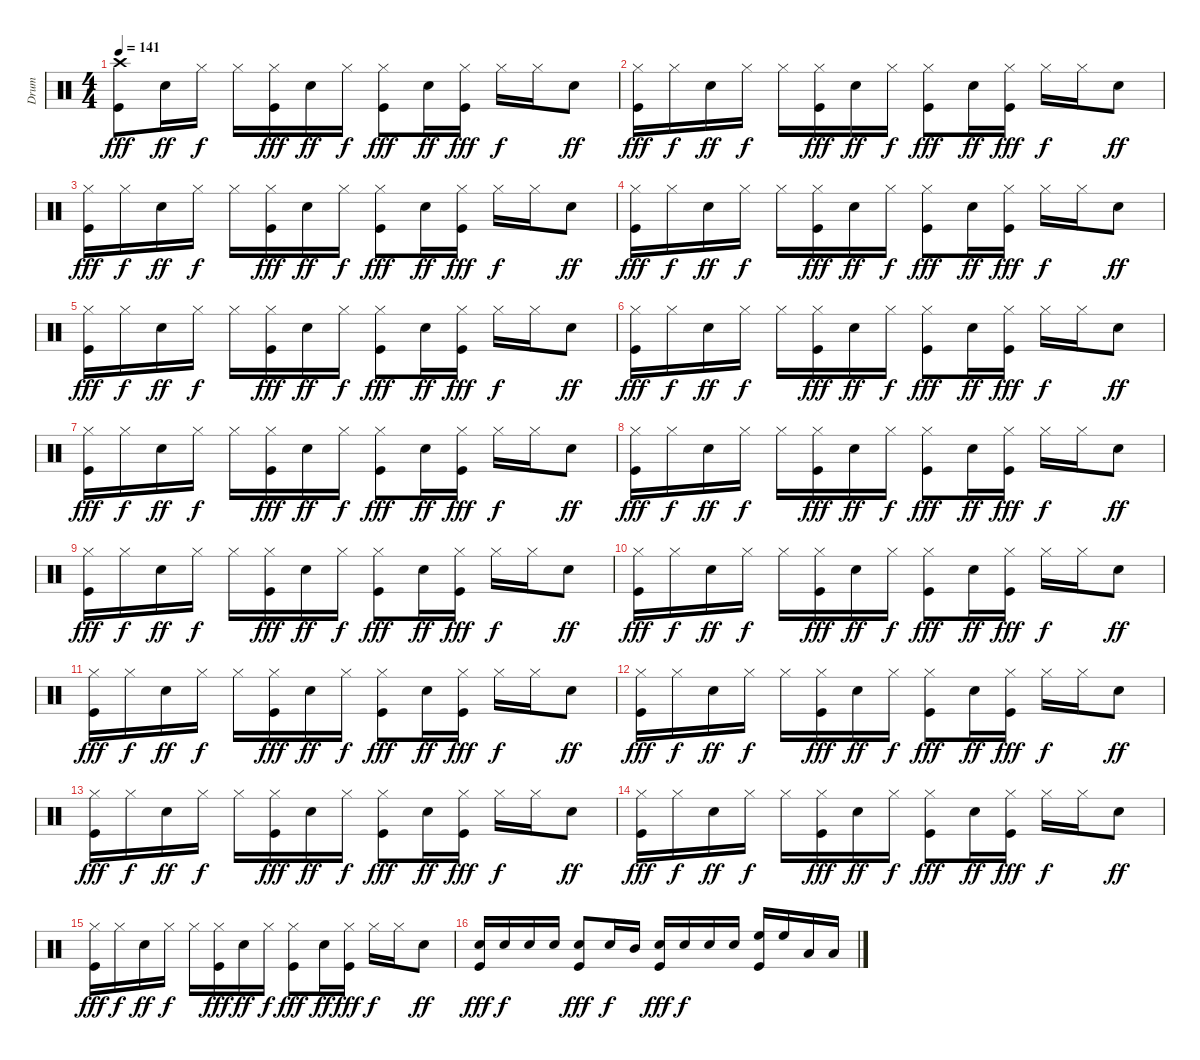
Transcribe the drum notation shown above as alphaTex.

\track ("Drum" "Drum") {instrument percussion}
\staff {score}
\articulation defaults
\ts (4 4)
\tempo 141
\clef neutral
\ks c
("Crash high (hit)" "Kick (hit)").8{dy fff} "Electric Snare (hit)".16{dy ff} "Hi-Hat (closed)".16{dy f} "Hi-Hat (closed)".16 ("Hi-Hat (closed)" "Kick (hit)").16{dy fff} "Electric Snare (hit)".16{dy ff} "Hi-Hat (closed)".16{dy f} ("Hi-Hat (closed)" "Kick (hit)").8{dy fff} "Electric Snare (hit)".16{dy ff} ("Hi-Hat (closed)" "Kick (hit)").16{dy fff} "Hi-Hat (closed)".16{dy f} "Hi-Hat (closed)".16 "Electric Snare (hit)".8{dy ff} |
("Hi-Hat (closed)" "Kick (hit)").16{dy fff} "Hi-Hat (closed)".16{dy f} "Electric Snare (hit)".16{dy ff} "Hi-Hat (closed)".16{dy f} "Hi-Hat (closed)".16 ("Hi-Hat (closed)" "Kick (hit)").16{dy fff} "Electric Snare (hit)".16{dy ff} "Hi-Hat (closed)".16{dy f} ("Hi-Hat (closed)" "Kick (hit)").8{dy fff} "Electric Snare (hit)".16{dy ff} ("Hi-Hat (closed)" "Kick (hit)").16{dy fff} "Hi-Hat (closed)".16{dy f} "Hi-Hat (closed)".16 "Electric Snare (hit)".8{dy ff} |
("Hi-Hat (closed)" "Kick (hit)").16{dy fff} "Hi-Hat (closed)".16{dy f} "Electric Snare (hit)".16{dy ff} "Hi-Hat (closed)".16{dy f} "Hi-Hat (closed)".16 ("Hi-Hat (closed)" "Kick (hit)").16{dy fff} "Electric Snare (hit)".16{dy ff} "Hi-Hat (closed)".16{dy f} ("Hi-Hat (closed)" "Kick (hit)").8{dy fff} "Electric Snare (hit)".16{dy ff} ("Hi-Hat (closed)" "Kick (hit)").16{dy fff} "Hi-Hat (closed)".16{dy f} "Hi-Hat (closed)".16 "Electric Snare (hit)".8{dy ff} |
("Hi-Hat (closed)" "Kick (hit)").16{dy fff} "Hi-Hat (closed)".16{dy f} "Electric Snare (hit)".16{dy ff} "Hi-Hat (closed)".16{dy f} "Hi-Hat (closed)".16 ("Hi-Hat (closed)" "Kick (hit)").16{dy fff} "Electric Snare (hit)".16{dy ff} "Hi-Hat (closed)".16{dy f} ("Hi-Hat (closed)" "Kick (hit)").8{dy fff} "Electric Snare (hit)".16{dy ff} ("Hi-Hat (closed)" "Kick (hit)").16{dy fff} "Hi-Hat (closed)".16{dy f} "Hi-Hat (closed)".16 "Electric Snare (hit)".8{dy ff} |
("Hi-Hat (closed)" "Kick (hit)").16{dy fff} "Hi-Hat (closed)".16{dy f} "Electric Snare (hit)".16{dy ff} "Hi-Hat (closed)".16{dy f} "Hi-Hat (closed)".16 ("Hi-Hat (closed)" "Kick (hit)").16{dy fff} "Electric Snare (hit)".16{dy ff} "Hi-Hat (closed)".16{dy f} ("Hi-Hat (closed)" "Kick (hit)").8{dy fff} "Electric Snare (hit)".16{dy ff} ("Hi-Hat (closed)" "Kick (hit)").16{dy fff} "Hi-Hat (closed)".16{dy f} "Hi-Hat (closed)".16 "Electric Snare (hit)".8{dy ff} |
("Hi-Hat (closed)" "Kick (hit)").16{dy fff} "Hi-Hat (closed)".16{dy f} "Electric Snare (hit)".16{dy ff} "Hi-Hat (closed)".16{dy f} "Hi-Hat (closed)".16 ("Hi-Hat (closed)" "Kick (hit)").16{dy fff} "Electric Snare (hit)".16{dy ff} "Hi-Hat (closed)".16{dy f} ("Hi-Hat (closed)" "Kick (hit)").8{dy fff} "Electric Snare (hit)".16{dy ff} ("Hi-Hat (closed)" "Kick (hit)").16{dy fff} "Hi-Hat (closed)".16{dy f} "Hi-Hat (closed)".16 "Electric Snare (hit)".8{dy ff} |
("Hi-Hat (closed)" "Kick (hit)").16{dy fff} "Hi-Hat (closed)".16{dy f} "Electric Snare (hit)".16{dy ff} "Hi-Hat (closed)".16{dy f} "Hi-Hat (closed)".16 ("Hi-Hat (closed)" "Kick (hit)").16{dy fff} "Electric Snare (hit)".16{dy ff} "Hi-Hat (closed)".16{dy f} ("Hi-Hat (closed)" "Kick (hit)").8{dy fff} "Electric Snare (hit)".16{dy ff} ("Hi-Hat (closed)" "Kick (hit)").16{dy fff} "Hi-Hat (closed)".16{dy f} "Hi-Hat (closed)".16 "Electric Snare (hit)".8{dy ff} |
("Hi-Hat (closed)" "Kick (hit)").16{dy fff} "Hi-Hat (closed)".16{dy f} "Electric Snare (hit)".16{dy ff} "Hi-Hat (closed)".16{dy f} "Hi-Hat (closed)".16 ("Hi-Hat (closed)" "Kick (hit)").16{dy fff} "Electric Snare (hit)".16{dy ff} "Hi-Hat (closed)".16{dy f} ("Hi-Hat (closed)" "Kick (hit)").8{dy fff} "Electric Snare (hit)".16{dy ff} ("Hi-Hat (closed)" "Kick (hit)").16{dy fff} "Hi-Hat (closed)".16{dy f} "Hi-Hat (closed)".16 "Electric Snare (hit)".8{dy ff} |
("Hi-Hat (closed)" "Kick (hit)").16{dy fff} "Hi-Hat (closed)".16{dy f} "Electric Snare (hit)".16{dy ff} "Hi-Hat (closed)".16{dy f} "Hi-Hat (closed)".16 ("Hi-Hat (closed)" "Kick (hit)").16{dy fff} "Electric Snare (hit)".16{dy ff} "Hi-Hat (closed)".16{dy f} ("Hi-Hat (closed)" "Kick (hit)").8{dy fff} "Electric Snare (hit)".16{dy ff} ("Hi-Hat (closed)" "Kick (hit)").16{dy fff} "Hi-Hat (closed)".16{dy f} "Hi-Hat (closed)".16 "Electric Snare (hit)".8{dy ff} |
("Hi-Hat (closed)" "Kick (hit)").16{dy fff} "Hi-Hat (closed)".16{dy f} "Electric Snare (hit)".16{dy ff} "Hi-Hat (closed)".16{dy f} "Hi-Hat (closed)".16 ("Hi-Hat (closed)" "Kick (hit)").16{dy fff} "Electric Snare (hit)".16{dy ff} "Hi-Hat (closed)".16{dy f} ("Hi-Hat (closed)" "Kick (hit)").8{dy fff} "Electric Snare (hit)".16{dy ff} ("Hi-Hat (closed)" "Kick (hit)").16{dy fff} "Hi-Hat (closed)".16{dy f} "Hi-Hat (closed)".16 "Electric Snare (hit)".8{dy ff} |
("Hi-Hat (closed)" "Kick (hit)").16{dy fff} "Hi-Hat (closed)".16{dy f} "Electric Snare (hit)".16{dy ff} "Hi-Hat (closed)".16{dy f} "Hi-Hat (closed)".16 ("Hi-Hat (closed)" "Kick (hit)").16{dy fff} "Electric Snare (hit)".16{dy ff} "Hi-Hat (closed)".16{dy f} ("Hi-Hat (closed)" "Kick (hit)").8{dy fff} "Electric Snare (hit)".16{dy ff} ("Hi-Hat (closed)" "Kick (hit)").16{dy fff} "Hi-Hat (closed)".16{dy f} "Hi-Hat (closed)".16 "Electric Snare (hit)".8{dy ff} |
("Hi-Hat (closed)" "Kick (hit)").16{dy fff} "Hi-Hat (closed)".16{dy f} "Electric Snare (hit)".16{dy ff} "Hi-Hat (closed)".16{dy f} "Hi-Hat (closed)".16 ("Hi-Hat (closed)" "Kick (hit)").16{dy fff} "Electric Snare (hit)".16{dy ff} "Hi-Hat (closed)".16{dy f} ("Hi-Hat (closed)" "Kick (hit)").8{dy fff} "Electric Snare (hit)".16{dy ff} ("Hi-Hat (closed)" "Kick (hit)").16{dy fff} "Hi-Hat (closed)".16{dy f} "Hi-Hat (closed)".16 "Electric Snare (hit)".8{dy ff} |
("Hi-Hat (closed)" "Kick (hit)").16{dy fff} "Hi-Hat (closed)".16{dy f} "Electric Snare (hit)".16{dy ff} "Hi-Hat (closed)".16{dy f} "Hi-Hat (closed)".16 ("Hi-Hat (closed)" "Kick (hit)").16{dy fff} "Electric Snare (hit)".16{dy ff} "Hi-Hat (closed)".16{dy f} ("Hi-Hat (closed)" "Kick (hit)").8{dy fff} "Electric Snare (hit)".16{dy ff} ("Hi-Hat (closed)" "Kick (hit)").16{dy fff} "Hi-Hat (closed)".16{dy f} "Hi-Hat (closed)".16 "Electric Snare (hit)".8{dy ff} |
("Hi-Hat (closed)" "Kick (hit)").16{dy fff} "Hi-Hat (closed)".16{dy f} "Electric Snare (hit)".16{dy ff} "Hi-Hat (closed)".16{dy f} "Hi-Hat (closed)".16 ("Hi-Hat (closed)" "Kick (hit)").16{dy fff} "Electric Snare (hit)".16{dy ff} "Hi-Hat (closed)".16{dy f} ("Hi-Hat (closed)" "Kick (hit)").8{dy fff} "Electric Snare (hit)".16{dy ff} ("Hi-Hat (closed)" "Kick (hit)").16{dy fff} "Hi-Hat (closed)".16{dy f} "Hi-Hat (closed)".16 "Electric Snare (hit)".8{dy ff} |
("Hi-Hat (closed)" "Kick (hit)").16{dy fff} "Hi-Hat (closed)".16{dy f} "Electric Snare (hit)".16{dy ff} "Hi-Hat (closed)".16{dy f} "Hi-Hat (closed)".16 ("Hi-Hat (closed)" "Kick (hit)").16{dy fff} "Electric Snare (hit)".16{dy ff} "Hi-Hat (closed)".16{dy f} ("Hi-Hat (closed)" "Kick (hit)").8{dy fff} "Electric Snare (hit)".16{dy ff} ("Hi-Hat (closed)" "Kick (hit)").16{dy fff} "Hi-Hat (closed)".16{dy f} "Hi-Hat (closed)".16 "Electric Snare (hit)".8{dy ff} |
("Electric Snare (hit)" "Kick (hit)").16{dy fff} "Electric Snare (hit)".16{dy f} "Electric Snare (hit)".16 "Electric Snare (hit)".16 ("Electric Snare (hit)" "Kick (hit)").8{dy fff} "Electric Snare (hit)".16{dy f} "Mid Tom (hit)".16 ("Electric Snare (hit)" "Kick (hit)").16{dy fff} "Electric Snare (hit)".16{dy f} "Electric Snare (hit)".16 "Electric Snare (hit)".16 ("High Floor Tom (hit)" "Kick (hit)").16 "High Floor Tom (hit)".16 "Low Tom (hit)".16 "Low Tom (hit)".16
